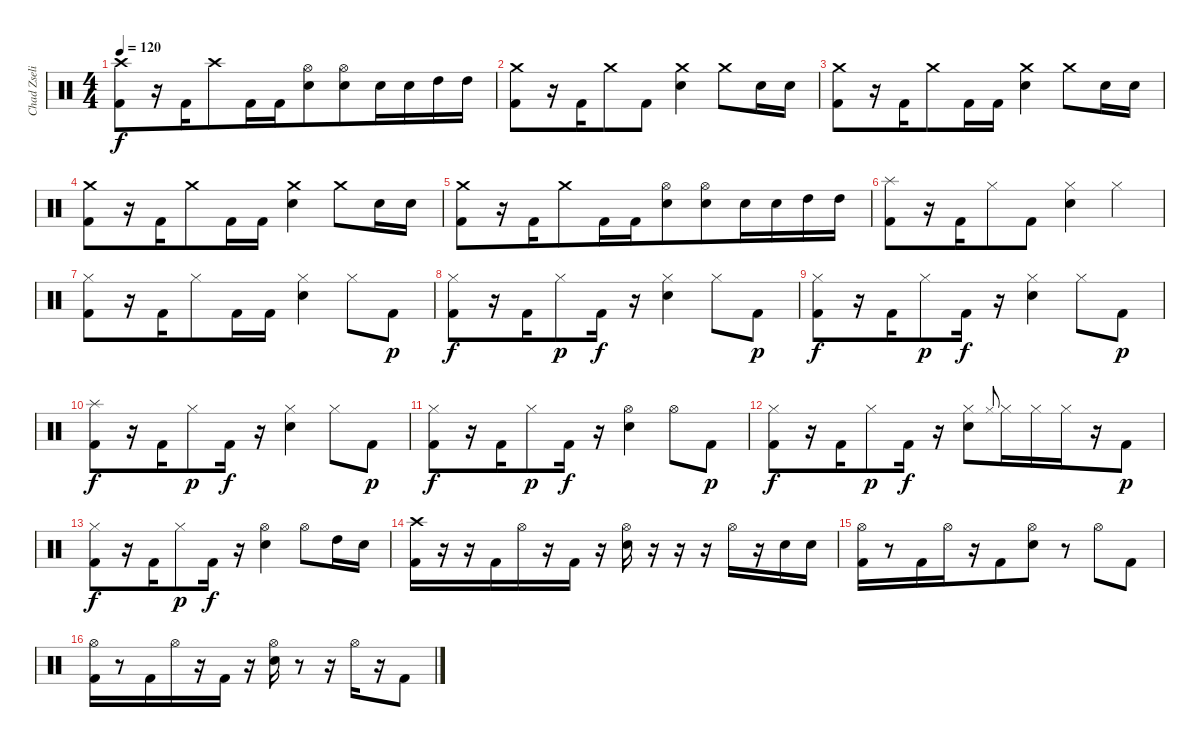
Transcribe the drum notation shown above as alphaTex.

\track ("Chad Zseliga (Drums)" "Chad Zseli") {instrument percussion}
\staff {score}
\articulation defaults
\ts (4 4)
\tempo 120
\clef neutral
\ks c
("Crash high (hit)" "Kick (hit) 2").8{dy f} r.16 "Kick (hit) 2".16{beam merge} "Crash high (hit)".8 "Kick (hit) 2".16 "Kick (hit) 2".16{beam merge} ("Hi-Hat (open)" "Snare (hit) 2").8 ("Hi-Hat (open)" "Snare (hit) 2").8{beam merge} "Snare (hit) 2".16 "Snare (hit) 2".16 "High Tom (hit)".16 "High Tom (hit)".16 |
("Crash medium (hit)" "Kick (hit) 2").8 r.16 "Kick (hit) 2".16{beam merge} "Crash medium (hit)".8 "Kick (hit) 2".8 ("Crash medium (hit)" "Snare (hit) 2").4 "Crash medium (hit)".8 "Snare (hit) 2".16 "Snare (hit) 2".16 |
("Crash medium (hit)" "Kick (hit) 2").8 r.16 "Kick (hit) 2".16{beam merge} "Crash medium (hit)".8 "Kick (hit) 2".16 "Kick (hit) 2".16 ("Crash medium (hit)" "Snare (hit) 2").4 "Crash medium (hit)".8 "Snare (hit) 2".16 "Snare (hit) 2".16 |
("Crash medium (hit)" "Kick (hit) 2").8 r.16 "Kick (hit) 2".16{beam merge} "Crash medium (hit)".8 "Kick (hit) 2".16 "Kick (hit) 2".16 ("Crash medium (hit)" "Snare (hit) 2").4 "Crash medium (hit)".8 "Snare (hit) 2".16 "Snare (hit) 2".16 |
("Crash medium (hit)" "Kick (hit) 2").8 r.16 "Kick (hit) 2".16{beam merge} "Crash medium (hit)".8 "Kick (hit) 2".16 "Kick (hit) 2".16{beam merge} ("Hi-Hat (open)" "Snare (hit) 2").8 ("Hi-Hat (open)" "Snare (hit) 2").8{beam merge} "Snare (hit) 2".16 "Snare (hit) 2".16 "High Tom (hit)".16 "High Tom (hit)".16 |
("Splash (hit)" "Kick (hit) 2").8 r.16 "Kick (hit) 2".16{beam merge} "Hi-Hat (closed)".8 "Kick (hit) 2".8 ("Hi-Hat (closed)" "Snare (hit) 2").4 "Hi-Hat (closed)".4 |
("Hi-Hat (closed)" "Kick (hit) 2").8 r.16 "Kick (hit) 2".16{beam merge} "Hi-Hat (closed)".8 "Kick (hit) 2".16 "Kick (hit) 2".16 ("Hi-Hat (closed)" "Snare (hit) 2").4 "Hi-Hat (closed)".8 "Kick (hit) 2".8{dy p} |
("Hi-Hat (closed)" "Kick (hit) 2").8{dy f} r.16 "Kick (hit) 2".16{beam merge} "Hi-Hat (closed)".8{dy p} "Kick (hit) 2".16{dy f} r.16 ("Hi-Hat (closed)" "Snare (hit) 2").4 "Hi-Hat (closed)".8 "Kick (hit) 2".8{dy p} |
("Hi-Hat (closed)" "Kick (hit) 2").8{dy f} r.16 "Kick (hit) 2".16{beam merge} "Hi-Hat (closed)".8{dy p} "Kick (hit) 2".16{dy f} r.16 ("Hi-Hat (closed)" "Snare (hit) 2").4 "Hi-Hat (closed)".8 "Kick (hit) 2".8{dy p} |
("Splash (hit)" "Kick (hit) 2").8{dy f} r.16 "Kick (hit) 2".16{beam merge} "Hi-Hat (closed)".8{dy p} "Kick (hit) 2".16{dy f} r.16 ("Hi-Hat (closed)" "Snare (hit) 2").4 "Hi-Hat (closed)".8 "Kick (hit) 2".8{dy p} |
("Hi-Hat (closed)" "Kick (hit) 2").8{dy f} r.16 "Kick (hit) 2".16{beam merge} "Hi-Hat (closed)".8{dy p} "Kick (hit) 2".16{dy f} r.16 ("Hi-Hat (open)" "Snare (hit) 2").4 "Hi-Hat (open)".8 "Kick (hit) 2".8{dy p} |
("Hi-Hat (closed)" "Kick (hit) 2").8{dy f} r.16 "Kick (hit) 2".16{beam merge} "Hi-Hat (closed)".8{dy p} "Kick (hit) 2".16{dy f} r.16 ("Hi-Hat (closed)" "Snare (hit) 2").8 "Hi-Hat (closed)".8{gr onbeat} "Hi-Hat (closed)".16 "Hi-Hat (closed)".16{beam merge} "Hi-Hat (closed)".16 r.16 "Kick (hit) 2".8{dy p} |
("Hi-Hat (closed)" "Kick (hit) 2").8{dy f} r.16 "Kick (hit) 2".16{beam merge} "Hi-Hat (closed)".8{dy p} "Kick (hit) 2".16{dy f} r.16 ("Hi-Hat (open)" "Snare (hit) 2").4 "Hi-Hat (open)".8 "High Tom (hit)".16 "Snare (hit) 2".16 |
("Crash high (hit)" "Kick (hit) 2").16 r.16 r.16 "Kick (hit) 2".16{beam merge} "Hi-Hat (open)".16 r.16 "Kick (hit) 2".16 r.16 ("Hi-Hat (open)" "Snare (hit) 2").16 r.16 r.16 r.16 "Hi-Hat (open)".16 r.16 "Snare (hit) 2".16 "Snare (hit) 2".16 |
("Hi-Hat (open)" "Kick (hit) 2").16 r.8 "Kick (hit) 2".16{beam merge} "Hi-Hat (open)".16 r.16 "Kick (hit) 2".8{beam merge} ("Hi-Hat (open)" "Snare (hit) 2").8 r.8 "Hi-Hat (open)".8 "Kick (hit) 2".8 |
("Hi-Hat (open)" "Kick (hit) 2").16 r.8 "Kick (hit) 2".16{beam merge} "Hi-Hat (open)".16 r.16 "Kick (hit) 2".16 r.16 ("Hi-Hat (open)" "Snare (hit) 2").16 r.8 r.16 "Hi-Hat (open)".16 r.16 "Kick (hit) 2".8
